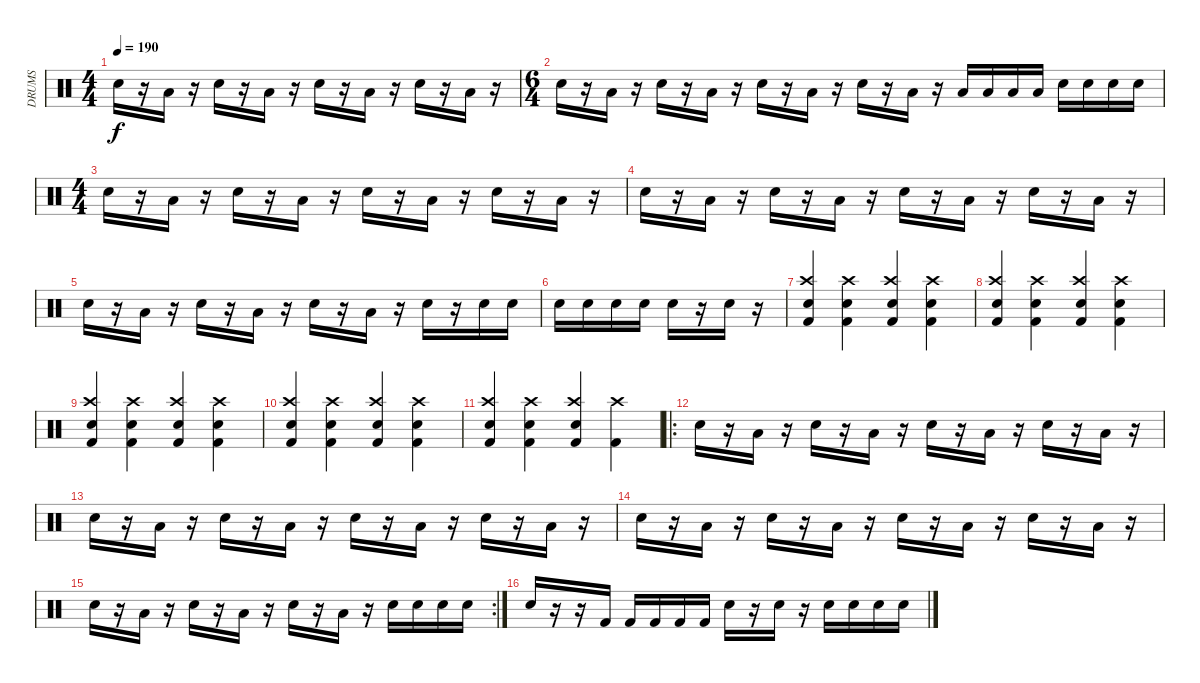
\track ("DRUMS" "DRUMS") {instrument percussion}
\staff {score}
\articulation defaults
\ts (4 4)
\tempo 190
\clef neutral
\ks c "Electric Snare (hit)".16{dy f}
r.16 "Low Tom (hit)".16 r.16 "Electric Snare (hit)".16 r.16 "Low Tom (hit)".16 r.16 "Electric Snare (hit)".16 r.16 "Low Tom (hit)".16 r.16 "Electric Snare (hit)".16 r.16 "Low Tom (hit)".16 r.16 |
\ts (6 4)
"Electric Snare (hit)".16 r.16 "Low Tom (hit)".16 r.16 "Electric Snare (hit)".16 r.16 "Low Tom (hit)".16 r.16 "Electric Snare (hit)".16 r.16 "Low Tom (hit)".16 r.16 "Electric Snare (hit)".16 r.16 "Low Tom (hit)".16 r.16 "Low Tom (hit)".16 "Low Tom (hit)".16 "Low Tom (hit)".16 "Low Tom (hit)".16 "Electric Snare (hit)".16 "Electric Snare (hit)".16 "Electric Snare (hit)".16 "Electric Snare (hit)".16 |
\ts (4 4)
"Electric Snare (hit)".16 r.16 "Low Tom (hit)".16 r.16 "Electric Snare (hit)".16 r.16 "Low Tom (hit)".16 r.16 "Electric Snare (hit)".16 r.16 "Low Tom (hit)".16 r.16 "Electric Snare (hit)".16 r.16 "Low Tom (hit)".16 r.16 |
"Electric Snare (hit)".16 r.16 "Low Tom (hit)".16 r.16 "Electric Snare (hit)".16 r.16 "Low Tom (hit)".16 r.16 "Electric Snare (hit)".16 r.16 "Low Tom (hit)".16 r.16 "Electric Snare (hit)".16 r.16 "Low Tom (hit)".16 r.16 |
"Electric Snare (hit)".16 r.16 "Low Tom (hit)".16 r.16 "Electric Snare (hit)".16 r.16 "Low Tom (hit)".16 r.16 "Electric Snare (hit)".16 r.16 "Low Tom (hit)".16 r.16 "Electric Snare (hit)".16 r.16 "Electric Snare (hit)".16 "Electric Snare (hit)".16 |
"Electric Snare (hit)".16 "Electric Snare (hit)".16 "Electric Snare (hit)".16 "Electric Snare (hit)".16 "Electric Snare (hit)".16 r.16 "Electric Snare (hit)".16 r.16 |
("Crash high (hit)" "Electric Snare (hit)" "Kick (hit) 2").4 ("Crash high (hit)" "Snare (hit) 2" "Kick (hit) 2").4 ("Crash high (hit)" "Electric Snare (hit)" "Kick (hit) 2").4 ("Crash high (hit)" "Snare (hit) 2" "Kick (hit) 2").4 |
("Crash high (hit)" "Electric Snare (hit)" "Kick (hit) 2").4 ("Crash high (hit)" "Snare (hit) 2" "Kick (hit) 2").4 ("Crash high (hit)" "Electric Snare (hit)" "Kick (hit) 2").4 ("Crash high (hit)" "Snare (hit) 2" "Kick (hit) 2").4 |
("Crash high (hit)" "Electric Snare (hit)" "Kick (hit) 2").4 ("Crash high (hit)" "Snare (hit) 2" "Kick (hit) 2").4 ("Crash high (hit)" "Electric Snare (hit)" "Kick (hit) 2").4 ("Crash high (hit)" "Snare (hit) 2" "Kick (hit) 2").4 |
("Crash high (hit)" "Electric Snare (hit)" "Kick (hit) 2").4 ("Crash high (hit)" "Snare (hit) 2" "Kick (hit) 2").4 ("Crash high (hit)" "Electric Snare (hit)" "Kick (hit) 2").4 ("Crash high (hit)" "Snare (hit) 2" "Kick (hit) 2").4 |
("Crash high (hit)" "Electric Snare (hit)" "Kick (hit) 2").4 ("Crash high (hit)" "Snare (hit) 2" "Kick (hit) 2").4 ("Crash high (hit)" "Electric Snare (hit)" "Kick (hit) 2").4 ("Crash high (hit)" "Kick (hit) 2").4 |
\ro "Electric Snare (hit)".16
r.16 "Low Tom (hit)".16 r.16 "Electric Snare (hit)".16 r.16 "Low Tom (hit)".16 r.16 "Electric Snare (hit)".16 r.16 "Low Tom (hit)".16 r.16 "Electric Snare (hit)".16 r.16 "Low Tom (hit)".16 r.16 |
"Electric Snare (hit)".16 r.16 "Low Tom (hit)".16 r.16 "Electric Snare (hit)".16 r.16 "Low Tom (hit)".16 r.16 "Electric Snare (hit)".16 r.16 "Low Tom (hit)".16 r.16 "Electric Snare (hit)".16 r.16 "Low Tom (hit)".16 r.16 |
"Electric Snare (hit)".16 r.16 "Low Tom (hit)".16 r.16 "Electric Snare (hit)".16 r.16 "Low Tom (hit)".16 r.16 "Electric Snare (hit)".16 r.16 "Low Tom (hit)".16 r.16 "Electric Snare (hit)".16 r.16 "Low Tom (hit)".16 r.16 |
\rc 2 "Electric Snare (hit)".16
r.16 "Low Tom (hit)".16 r.16 "Electric Snare (hit)".16 r.16 "Low Tom (hit)".16 r.16 "Electric Snare (hit)".16 r.16 "Low Tom (hit)".16 r.16 "Electric Snare (hit)".16 "Electric Snare (hit)".16 "Electric Snare (hit)".16 "Electric Snare (hit)".16 |
"Electric Snare (hit)".16 r.16 r.16 "Kick (hit) 2".16 "Kick (hit) 2".16 "Kick (hit) 2".16 "Kick (hit) 2".16 "Kick (hit) 2".16 "Electric Snare (hit)".16 r.16 "Electric Snare (hit)".16 r.16 "Electric Snare (hit)".16 "Electric Snare (hit)".16 "Electric Snare (hit)".16 "Electric Snare (hit)".16
